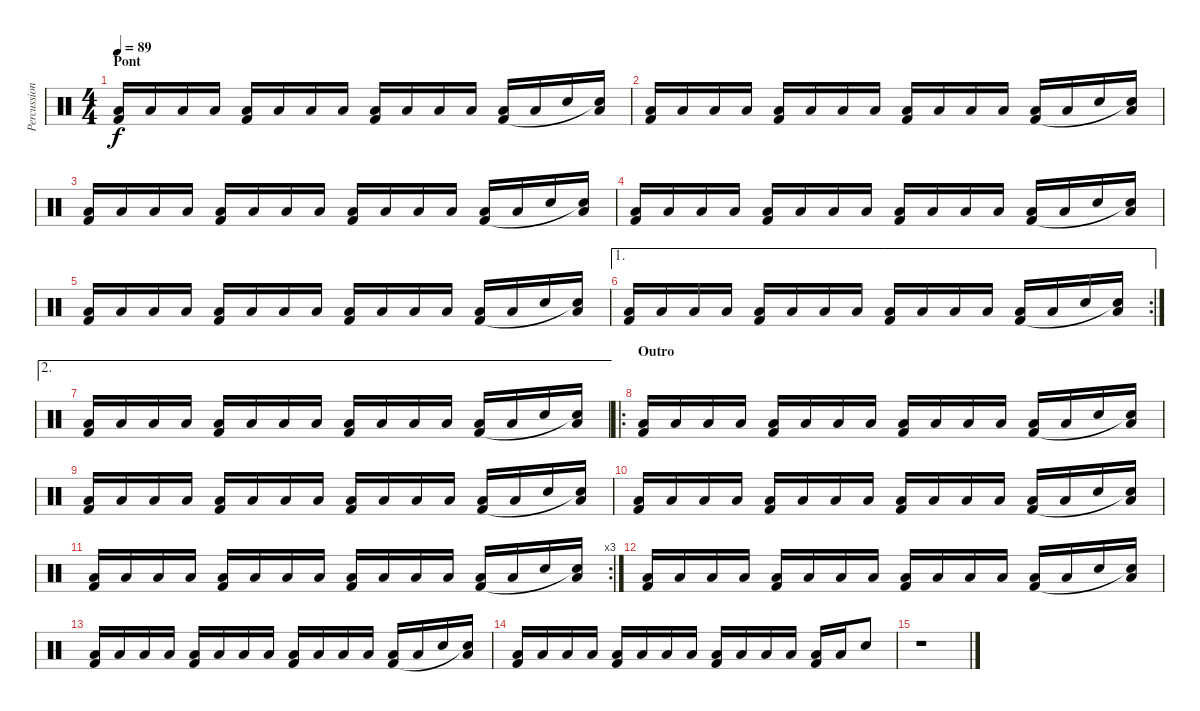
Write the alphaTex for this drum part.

\track ("Percussions" "Percussion") {instrument percussion}
\staff {score}
\articulation defaults
\ts (4 4)
\section ("" "Pont")
\tempo 89
\clef neutral
\ks c
("Low Floor Tom (hit)" "Kick (hit) 2").16{dy f} "Low Floor Tom (hit)".16 "Low Floor Tom (hit)".16 "Low Floor Tom (hit)".16 ("Low Floor Tom (hit)" "Kick (hit) 2").16 "Low Floor Tom (hit)".16 "Low Floor Tom (hit)".16 "Low Floor Tom (hit)".16 ("Low Floor Tom (hit)" "Kick (hit) 2").16 "Low Floor Tom (hit)".16 "Low Floor Tom (hit)".16 "Low Floor Tom (hit)".16 ("Low Floor Tom (hit)" "Kick (hit) 2").16 "Low Floor Tom (hit)".16 "Electric Snare (hit)".16 ("Low Floor Tom (hit)" "Snare (hit)"{t}).16 |
("Low Floor Tom (hit)" "Kick (hit) 2").16 "Low Floor Tom (hit)".16 "Low Floor Tom (hit)".16 "Low Floor Tom (hit)".16 ("Low Floor Tom (hit)" "Kick (hit) 2").16 "Low Floor Tom (hit)".16 "Low Floor Tom (hit)".16 "Low Floor Tom (hit)".16 ("Low Floor Tom (hit)" "Kick (hit) 2").16 "Low Floor Tom (hit)".16 "Low Floor Tom (hit)".16 "Low Floor Tom (hit)".16 ("Low Floor Tom (hit)" "Kick (hit) 2").16 "Low Floor Tom (hit)".16 "Electric Snare (hit)".16 ("Low Floor Tom (hit)" "Snare (hit)"{t}).16 |
("Low Floor Tom (hit)" "Kick (hit) 2").16 "Low Floor Tom (hit)".16 "Low Floor Tom (hit)".16 "Low Floor Tom (hit)".16 ("Low Floor Tom (hit)" "Kick (hit) 2").16 "Low Floor Tom (hit)".16 "Low Floor Tom (hit)".16 "Low Floor Tom (hit)".16 ("Low Floor Tom (hit)" "Kick (hit) 2").16 "Low Floor Tom (hit)".16 "Low Floor Tom (hit)".16 "Low Floor Tom (hit)".16 ("Low Floor Tom (hit)" "Kick (hit) 2").16 "Low Floor Tom (hit)".16 "Electric Snare (hit)".16 ("Low Floor Tom (hit)" "Snare (hit)"{t}).16 |
("Low Floor Tom (hit)" "Kick (hit) 2").16 "Low Floor Tom (hit)".16 "Low Floor Tom (hit)".16 "Low Floor Tom (hit)".16 ("Low Floor Tom (hit)" "Kick (hit) 2").16 "Low Floor Tom (hit)".16 "Low Floor Tom (hit)".16 "Low Floor Tom (hit)".16 ("Low Floor Tom (hit)" "Kick (hit) 2").16 "Low Floor Tom (hit)".16 "Low Floor Tom (hit)".16 "Low Floor Tom (hit)".16 ("Low Floor Tom (hit)" "Kick (hit) 2").16 "Low Floor Tom (hit)".16 "Electric Snare (hit)".16 ("Low Floor Tom (hit)" "Snare (hit)"{t}).16 |
("Low Floor Tom (hit)" "Kick (hit) 2").16 "Low Floor Tom (hit)".16 "Low Floor Tom (hit)".16 "Low Floor Tom (hit)".16 ("Low Floor Tom (hit)" "Kick (hit) 2").16 "Low Floor Tom (hit)".16 "Low Floor Tom (hit)".16 "Low Floor Tom (hit)".16 ("Low Floor Tom (hit)" "Kick (hit) 2").16 "Low Floor Tom (hit)".16 "Low Floor Tom (hit)".16 "Low Floor Tom (hit)".16 ("Low Floor Tom (hit)" "Kick (hit) 2").16 "Low Floor Tom (hit)".16 "Electric Snare (hit)".16 ("Low Floor Tom (hit)" "Snare (hit)"{t}).16 |
\ae 1
\rc 2
("Low Floor Tom (hit)" "Kick (hit) 2").16 "Low Floor Tom (hit)".16 "Low Floor Tom (hit)".16 "Low Floor Tom (hit)".16 ("Low Floor Tom (hit)" "Kick (hit) 2").16 "Low Floor Tom (hit)".16 "Low Floor Tom (hit)".16 "Low Floor Tom (hit)".16 ("Low Floor Tom (hit)" "Kick (hit) 2").16 "Low Floor Tom (hit)".16 "Low Floor Tom (hit)".16 "Low Floor Tom (hit)".16 ("Low Floor Tom (hit)" "Kick (hit) 2").16 "Low Floor Tom (hit)".16 "Electric Snare (hit)".16 ("Low Floor Tom (hit)" "Snare (hit)"{t}).16 |
\ae 2
("Low Floor Tom (hit)" "Kick (hit) 2").16 "Low Floor Tom (hit)".16 "Low Floor Tom (hit)".16 "Low Floor Tom (hit)".16 ("Low Floor Tom (hit)" "Kick (hit) 2").16 "Low Floor Tom (hit)".16 "Low Floor Tom (hit)".16 "Low Floor Tom (hit)".16 ("Low Floor Tom (hit)" "Kick (hit) 2").16 "Low Floor Tom (hit)".16 "Low Floor Tom (hit)".16 "Low Floor Tom (hit)".16 ("Low Floor Tom (hit)" "Kick (hit) 2").16 "Low Floor Tom (hit)".16 "Electric Snare (hit)".16 ("Low Floor Tom (hit)" "Snare (hit)"{t}).16 |
\ro
\section ("" "Outro")
("Low Floor Tom (hit)" "Kick (hit) 2").16 "Low Floor Tom (hit)".16 "Low Floor Tom (hit)".16 "Low Floor Tom (hit)".16 ("Low Floor Tom (hit)" "Kick (hit) 2").16 "Low Floor Tom (hit)".16 "Low Floor Tom (hit)".16 "Low Floor Tom (hit)".16 ("Low Floor Tom (hit)" "Kick (hit) 2").16 "Low Floor Tom (hit)".16 "Low Floor Tom (hit)".16 "Low Floor Tom (hit)".16 ("Low Floor Tom (hit)" "Kick (hit) 2").16 "Low Floor Tom (hit)".16 "Electric Snare (hit)".16 ("Low Floor Tom (hit)" "Snare (hit)"{t}).16 |
("Low Floor Tom (hit)" "Kick (hit) 2").16 "Low Floor Tom (hit)".16 "Low Floor Tom (hit)".16 "Low Floor Tom (hit)".16 ("Low Floor Tom (hit)" "Kick (hit) 2").16 "Low Floor Tom (hit)".16 "Low Floor Tom (hit)".16 "Low Floor Tom (hit)".16 ("Low Floor Tom (hit)" "Kick (hit) 2").16 "Low Floor Tom (hit)".16 "Low Floor Tom (hit)".16 "Low Floor Tom (hit)".16 ("Low Floor Tom (hit)" "Kick (hit) 2").16 "Low Floor Tom (hit)".16 "Electric Snare (hit)".16 ("Low Floor Tom (hit)" "Snare (hit)"{t}).16 |
("Low Floor Tom (hit)" "Kick (hit) 2").16 "Low Floor Tom (hit)".16 "Low Floor Tom (hit)".16 "Low Floor Tom (hit)".16 ("Low Floor Tom (hit)" "Kick (hit) 2").16 "Low Floor Tom (hit)".16 "Low Floor Tom (hit)".16 "Low Floor Tom (hit)".16 ("Low Floor Tom (hit)" "Kick (hit) 2").16 "Low Floor Tom (hit)".16 "Low Floor Tom (hit)".16 "Low Floor Tom (hit)".16 ("Low Floor Tom (hit)" "Kick (hit) 2").16 "Low Floor Tom (hit)".16 "Electric Snare (hit)".16 ("Low Floor Tom (hit)" "Snare (hit)"{t}).16 |
\rc 3
("Low Floor Tom (hit)" "Kick (hit) 2").16 "Low Floor Tom (hit)".16 "Low Floor Tom (hit)".16 "Low Floor Tom (hit)".16 ("Low Floor Tom (hit)" "Kick (hit) 2").16 "Low Floor Tom (hit)".16 "Low Floor Tom (hit)".16 "Low Floor Tom (hit)".16 ("Low Floor Tom (hit)" "Kick (hit) 2").16 "Low Floor Tom (hit)".16 "Low Floor Tom (hit)".16 "Low Floor Tom (hit)".16 ("Low Floor Tom (hit)" "Kick (hit) 2").16 "Low Floor Tom (hit)".16 "Electric Snare (hit)".16 ("Low Floor Tom (hit)" "Snare (hit)"{t}).16 |
("Low Floor Tom (hit)" "Kick (hit) 2").16 "Low Floor Tom (hit)".16 "Low Floor Tom (hit)".16 "Low Floor Tom (hit)".16 ("Low Floor Tom (hit)" "Kick (hit) 2").16 "Low Floor Tom (hit)".16 "Low Floor Tom (hit)".16 "Low Floor Tom (hit)".16 ("Low Floor Tom (hit)" "Kick (hit) 2").16 "Low Floor Tom (hit)".16 "Low Floor Tom (hit)".16 "Low Floor Tom (hit)".16 ("Low Floor Tom (hit)" "Kick (hit) 2").16 "Low Floor Tom (hit)".16 "Electric Snare (hit)".16 ("Low Floor Tom (hit)" "Snare (hit)"{t}).16 |
("Low Floor Tom (hit)" "Kick (hit) 2").16 "Low Floor Tom (hit)".16 "Low Floor Tom (hit)".16 "Low Floor Tom (hit)".16 ("Low Floor Tom (hit)" "Kick (hit) 2").16 "Low Floor Tom (hit)".16 "Low Floor Tom (hit)".16 "Low Floor Tom (hit)".16 ("Low Floor Tom (hit)" "Kick (hit) 2").16 "Low Floor Tom (hit)".16 "Low Floor Tom (hit)".16 "Low Floor Tom (hit)".16 ("Low Floor Tom (hit)" "Kick (hit) 2").16 "Low Floor Tom (hit)".16 "Electric Snare (hit)".16 ("Low Floor Tom (hit)" "Snare (hit)"{t}).16 |
("Low Floor Tom (hit)" "Kick (hit) 2").16 "Low Floor Tom (hit)".16 "Low Floor Tom (hit)".16 "Low Floor Tom (hit)".16 ("Low Floor Tom (hit)" "Kick (hit) 2").16 "Low Floor Tom (hit)".16 "Low Floor Tom (hit)".16 "Low Floor Tom (hit)".16 ("Low Floor Tom (hit)" "Kick (hit) 2").16 "Low Floor Tom (hit)".16 "Low Floor Tom (hit)".16 "Low Floor Tom (hit)".16 ("Low Floor Tom (hit)" "Kick (hit) 2").16 "Low Floor Tom (hit)".16 "Electric Snare (hit)".8 |
r.1
